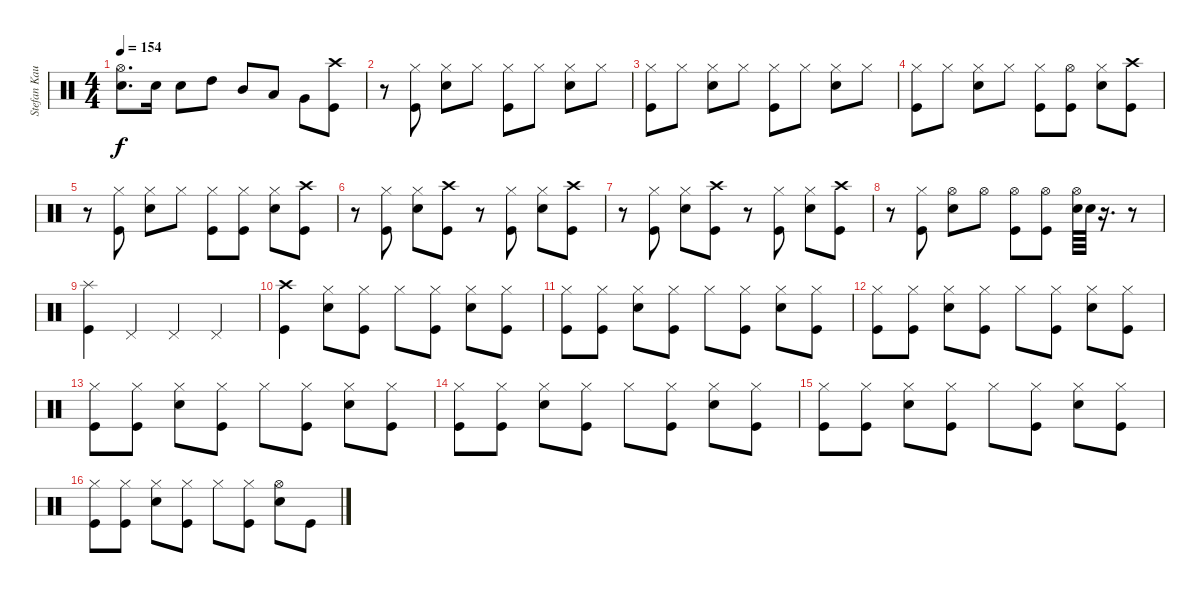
\track ("Stefan Kaufmann" "Stefan Kau") {instrument percussion}
\staff {score}
\articulation defaults
\ts (4 4)
\tempo 154
\clef neutral
\ks c
("Hi-Hat (open)" "Snare (hit) 2").8{d dy f} "Snare (hit) 2".16 "Snare (hit) 2".8 "High Tom (hit)".8 "Mid Tom (hit)".8 "Low Tom (hit)".8 "Very Low Tom (hit)".8 ("Crash high (hit)" "Kick (hit)").8 |
r.8 ("Hi-Hat (closed)" "Kick (hit)").8 ("Hi-Hat (closed)" "Snare (hit) 2").8 "Hi-Hat (closed)".8 ("Hi-Hat (closed)" "Kick (hit)").8 "Hi-Hat (closed)".8 ("Hi-Hat (closed)" "Snare (hit) 2").8 "Hi-Hat (closed)".8 |
("Hi-Hat (closed)" "Kick (hit)").8 "Hi-Hat (closed)".8 ("Hi-Hat (closed)" "Snare (hit) 2").8 "Hi-Hat (closed)".8 ("Hi-Hat (closed)" "Kick (hit)").8 "Hi-Hat (closed)".8 ("Hi-Hat (closed)" "Snare (hit) 2").8 "Hi-Hat (closed)".8 |
("Hi-Hat (closed)" "Kick (hit)").8 "Hi-Hat (closed)".8 ("Hi-Hat (closed)" "Snare (hit) 2").8 "Hi-Hat (closed)".8 ("Hi-Hat (closed)" "Kick (hit)").8 ("Hi-Hat (open)" "Kick (hit)").8 ("Hi-Hat (closed)" "Snare (hit) 2").8 ("Crash high (hit)" "Kick (hit)").8 |
r.8 ("Hi-Hat (closed)" "Kick (hit)").8 ("Hi-Hat (closed)" "Snare (hit) 2").8 "Hi-Hat (closed)".8 ("Hi-Hat (closed)" "Kick (hit)").8 ("Hi-Hat (closed)" "Kick (hit)").8 ("Hi-Hat (closed)" "Snare (hit) 2").8 ("Crash high (hit)" "Kick (hit)").8 |
r.8 ("Hi-Hat (closed)" "Kick (hit)").8 ("Hi-Hat (closed)" "Snare (hit) 2").8 ("Crash high (hit)" "Kick (hit)").8 r.8 ("Hi-Hat (closed)" "Kick (hit)").8 ("Hi-Hat (closed)" "Snare (hit) 2").8 ("Crash high (hit)" "Kick (hit)").8 |
r.8 ("Hi-Hat (closed)" "Kick (hit)").8 ("Hi-Hat (closed)" "Snare (hit) 2").8 ("Crash high (hit)" "Kick (hit)").8 r.8 ("Hi-Hat (closed)" "Kick (hit)").8 ("Hi-Hat (closed)" "Snare (hit) 2").8 ("Crash high (hit)" "Kick (hit)").8 |
r.8 ("Hi-Hat (closed)" "Kick (hit)").8 ("Hi-Hat (open)" "Snare (hit) 2").8 "Hi-Hat (open)".8 ("Hi-Hat (open)" "Kick (hit)").8 ("Hi-Hat (open)" "Kick (hit)").8 ("Hi-Hat (open)" "Snare (hit) 2").64 "Snare (hit) 2".64 r.16{d} r.8 |
("Splash (hit)" "Kick (hit)").4 "Pedal Hi-Hat (hit)".4 "Pedal Hi-Hat (hit)".4 "Pedal Hi-Hat (hit)".4 |
("Crash high (hit)" "Kick (hit)").4 ("Hi-Hat (closed)" "Snare (hit) 2").8 ("Hi-Hat (closed)" "Kick (hit)").8 "Hi-Hat (closed)".8 ("Hi-Hat (closed)" "Kick (hit)").8 ("Hi-Hat (closed)" "Snare (hit) 2").8 ("Hi-Hat (closed)" "Kick (hit)").8 |
("Hi-Hat (closed)" "Kick (hit)").8 ("Hi-Hat (closed)" "Kick (hit)").8 ("Hi-Hat (closed)" "Snare (hit) 2").8 ("Hi-Hat (closed)" "Kick (hit)").8 "Hi-Hat (closed)".8 ("Hi-Hat (closed)" "Kick (hit)").8 ("Hi-Hat (closed)" "Snare (hit) 2").8 ("Hi-Hat (closed)" "Kick (hit)").8 |
("Hi-Hat (closed)" "Kick (hit)").8 ("Hi-Hat (closed)" "Kick (hit)").8 ("Hi-Hat (closed)" "Snare (hit) 2").8 ("Hi-Hat (closed)" "Kick (hit)").8 "Hi-Hat (closed)".8 ("Hi-Hat (closed)" "Kick (hit)").8 ("Hi-Hat (closed)" "Snare (hit) 2").8 ("Hi-Hat (closed)" "Kick (hit)").8 |
("Hi-Hat (closed)" "Kick (hit)").8 ("Hi-Hat (closed)" "Kick (hit)").8 ("Hi-Hat (closed)" "Snare (hit) 2").8 ("Hi-Hat (closed)" "Kick (hit)").8 "Hi-Hat (closed)".8 ("Hi-Hat (closed)" "Kick (hit)").8 ("Hi-Hat (closed)" "Snare (hit) 2").8 ("Hi-Hat (closed)" "Kick (hit)").8 |
("Hi-Hat (closed)" "Kick (hit)").8 ("Hi-Hat (closed)" "Kick (hit)").8 ("Hi-Hat (closed)" "Snare (hit) 2").8 ("Hi-Hat (closed)" "Kick (hit)").8 "Hi-Hat (closed)".8 ("Hi-Hat (closed)" "Kick (hit)").8 ("Hi-Hat (closed)" "Snare (hit) 2").8 ("Hi-Hat (closed)" "Kick (hit)").8 |
("Hi-Hat (closed)" "Kick (hit)").8 ("Hi-Hat (closed)" "Kick (hit)").8 ("Hi-Hat (closed)" "Snare (hit) 2").8 ("Hi-Hat (closed)" "Kick (hit)").8 "Hi-Hat (closed)".8 ("Hi-Hat (closed)" "Kick (hit)").8 ("Hi-Hat (closed)" "Snare (hit) 2").8 ("Hi-Hat (closed)" "Kick (hit)").8 |
("Hi-Hat (closed)" "Kick (hit)").8 ("Hi-Hat (closed)" "Kick (hit)").8 ("Hi-Hat (closed)" "Snare (hit) 2").8 ("Hi-Hat (closed)" "Kick (hit)").8 "Hi-Hat (closed)".8 ("Hi-Hat (closed)" "Kick (hit)").8 ("Hi-Hat (open)" "Snare (hit) 2").8 "Kick (hit)".8
